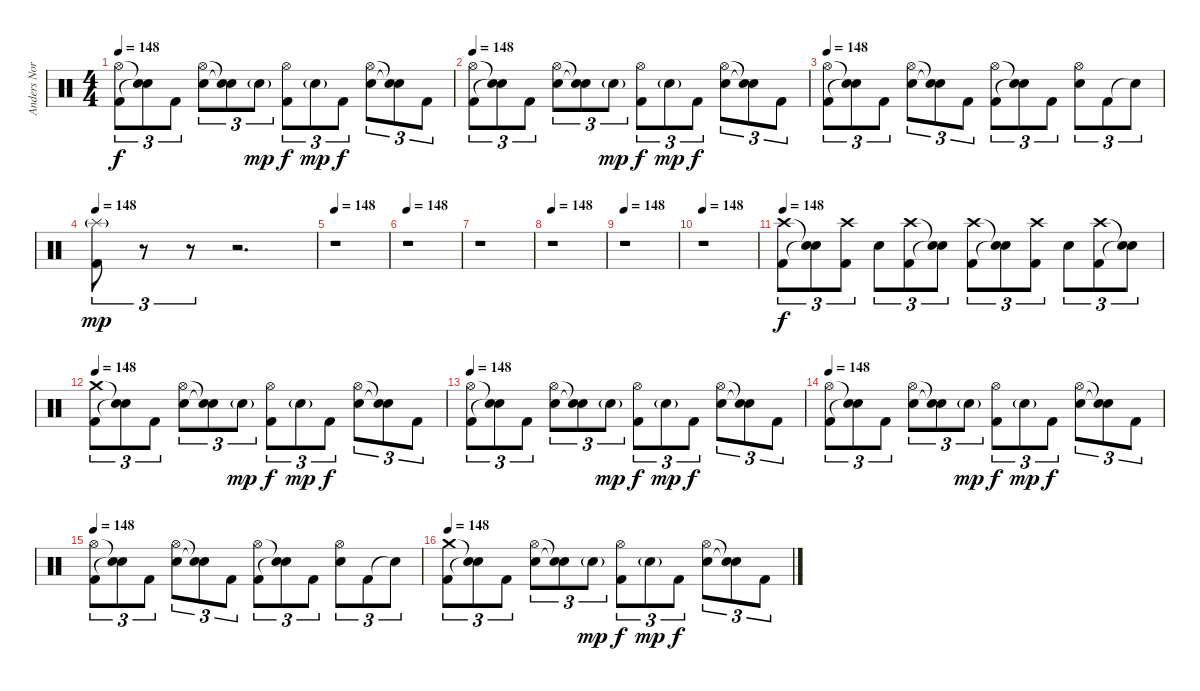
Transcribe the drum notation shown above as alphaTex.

\track ("Anders Nordin" "Anders Nor") {instrument percussion}
\staff {score}
\articulation defaults
\ts (4 4)
\tempo 148
\clef neutral
\ks c
("Kick (hit) 2" "Hi-Hat (open)").8{tu (3 2) dy f} ("Snare (hit)"{t} "Snare (hit)"{t}).8{tu (3 2)} "Kick (hit) 2".8{tu (3 2)} ("Electric Snare (hit)" "Hi-Hat (open)").8{tu (3 2)} ("Snare (hit)"{t} "Snare (hit)"{t}).8{tu (3 2)} "Electric Snare (hit)"{g}.8{tu (3 2) dy mp} ("Kick (hit) 2" "Hi-Hat (open)").8{tu (3 2) dy f} "Electric Snare (hit)"{g}.8{tu (3 2) dy mp} "Kick (hit) 2".8{tu (3 2) dy f} ("Electric Snare (hit)" "Hi-Hat (open)").8{tu (3 2)} ("Snare (hit)"{t} "Snare (hit)"{t}).8{tu (3 2)} "Kick (hit) 2".8{tu (3 2)} |
\tempo 148
("Kick (hit) 2" "Hi-Hat (open)").8{tu (3 2)} ("Snare (hit)"{t} "Snare (hit)"{t}).8{tu (3 2)} "Kick (hit) 2".8{tu (3 2)} ("Electric Snare (hit)" "Hi-Hat (open)").8{tu (3 2)} ("Snare (hit)"{t} "Snare (hit)"{t}).8{tu (3 2)} "Electric Snare (hit)"{g}.8{tu (3 2) dy mp} ("Kick (hit) 2" "Hi-Hat (open)").8{tu (3 2) dy f} "Electric Snare (hit)"{g}.8{tu (3 2) dy mp} "Kick (hit) 2".8{tu (3 2) dy f} ("Electric Snare (hit)" "Hi-Hat (open)").8{tu (3 2)} ("Snare (hit)"{t} "Snare (hit)"{t}).8{tu (3 2)} "Kick (hit) 2".8{tu (3 2)} |
\tempo 148
("Kick (hit) 2" "Hi-Hat (open)").8{tu (3 2)} ("Snare (hit)"{t} "Snare (hit)"{t}).8{tu (3 2)} "Kick (hit) 2".8{tu (3 2)} ("Electric Snare (hit)" "Hi-Hat (open)").8{tu (3 2)} ("Snare (hit)"{t} "Snare (hit)"{t}).8{tu (3 2)} "Kick (hit) 2".8{tu (3 2)} ("Kick (hit) 2" "Hi-Hat (open)").8{tu (3 2)} ("Snare (hit)"{t} "Snare (hit)"{t}).8{tu (3 2)} "Kick (hit) 2".8{tu (3 2)} ("Electric Snare (hit)" "Hi-Hat (open)").8{tu (3 2)} "Kick (hit) 2".8{tu (3 2)} "Snare (hit)"{t}.8{tu (3 2)} |
\tempo 148
("Kick (hit) 2" "Splash (hit)"{g}).8{tu (3 2) dy mp volume 7} r.8{tu (3 2)} r.8{tu (3 2)} r.2{d} |
\tempo 148
r.1 |
\tempo 148
r.1 |
r.1 |
\tempo 148
r.1 |
\tempo 148
r.1 |
\tempo 148
r.1{volume 12} |
\tempo 148
("Kick (hit) 2" "Crash high (hit)").8{tu (3 2) dy f volume 12} ("Snare (hit)"{t} "Snare (hit)"{t}).8{tu (3 2)} ("Kick (hit) 2" "Crash high (hit)").8{tu (3 2)} "Electric Snare (hit)".8{tu (3 2)} ("Kick (hit) 2" "Crash high (hit)").8{tu (3 2)} ("Snare (hit)"{t} "Snare (hit)"{t}).8{tu (3 2)} ("Kick (hit) 2" "Crash high (hit)").8{tu (3 2)} ("Snare (hit)"{t} "Snare (hit)"{t}).8{tu (3 2)} ("Kick (hit) 2" "Crash high (hit)").8{tu (3 2)} "Electric Snare (hit)".8{tu (3 2)} ("Kick (hit) 2" "Crash high (hit)").8{tu (3 2)} ("Snare (hit)"{t} "Snare (hit)"{t}).8{tu (3 2)} |
\tempo 148
("Kick (hit) 2" "Crash medium (hit)").8{tu (3 2)} ("Snare (hit)"{t} "Snare (hit)"{t}).8{tu (3 2)} "Kick (hit) 2".8{tu (3 2)} ("Electric Snare (hit)" "Hi-Hat (open)").8{tu (3 2)} ("Snare (hit)"{t} "Snare (hit)"{t}).8{tu (3 2)} "Electric Snare (hit)"{g}.8{tu (3 2) dy mp} ("Kick (hit) 2" "Hi-Hat (open)").8{tu (3 2) dy f} "Electric Snare (hit)"{g}.8{tu (3 2) dy mp} "Kick (hit) 2".8{tu (3 2) dy f} ("Electric Snare (hit)" "Hi-Hat (open)").8{tu (3 2)} ("Snare (hit)"{t} "Snare (hit)"{t}).8{tu (3 2)} "Kick (hit) 2".8{tu (3 2)} |
\tempo 148
("Kick (hit) 2" "Hi-Hat (open)").8{tu (3 2)} ("Snare (hit)"{t} "Snare (hit)"{t}).8{tu (3 2)} "Kick (hit) 2".8{tu (3 2)} ("Electric Snare (hit)" "Hi-Hat (open)").8{tu (3 2)} ("Snare (hit)"{t} "Snare (hit)"{t}).8{tu (3 2)} "Electric Snare (hit)"{g}.8{tu (3 2) dy mp} ("Kick (hit) 2" "Hi-Hat (open)").8{tu (3 2) dy f} "Electric Snare (hit)"{g}.8{tu (3 2) dy mp} "Kick (hit) 2".8{tu (3 2) dy f} ("Electric Snare (hit)" "Hi-Hat (open)").8{tu (3 2)} ("Snare (hit)"{t} "Snare (hit)"{t}).8{tu (3 2)} "Kick (hit) 2".8{tu (3 2)} |
\tempo 148
("Kick (hit) 2" "Hi-Hat (open)").8{tu (3 2)} ("Snare (hit)"{t} "Snare (hit)"{t}).8{tu (3 2)} "Kick (hit) 2".8{tu (3 2)} ("Electric Snare (hit)" "Hi-Hat (open)").8{tu (3 2)} ("Snare (hit)"{t} "Snare (hit)"{t}).8{tu (3 2)} "Electric Snare (hit)"{g}.8{tu (3 2) dy mp} ("Kick (hit) 2" "Hi-Hat (open)").8{tu (3 2) dy f} "Electric Snare (hit)"{g}.8{tu (3 2) dy mp} "Kick (hit) 2".8{tu (3 2) dy f} ("Electric Snare (hit)" "Hi-Hat (open)").8{tu (3 2)} ("Snare (hit)"{t} "Snare (hit)"{t}).8{tu (3 2)} "Kick (hit) 2".8{tu (3 2)} |
\tempo 148
("Kick (hit) 2" "Hi-Hat (open)").8{tu (3 2)} ("Snare (hit)"{t} "Snare (hit)"{t}).8{tu (3 2)} "Kick (hit) 2".8{tu (3 2)} ("Electric Snare (hit)" "Hi-Hat (open)").8{tu (3 2)} ("Snare (hit)"{t} "Snare (hit)"{t}).8{tu (3 2)} "Kick (hit) 2".8{tu (3 2)} ("Kick (hit) 2" "Hi-Hat (open)").8{tu (3 2)} ("Snare (hit)"{t} "Snare (hit)"{t}).8{tu (3 2)} "Kick (hit) 2".8{tu (3 2)} ("Electric Snare (hit)" "Hi-Hat (open)").8{tu (3 2)} "Kick (hit) 2".8{tu (3 2)} "Snare (hit)"{t}.8{tu (3 2)} |
\tempo 148
("Kick (hit) 2" "Crash medium (hit)").8{tu (3 2)} ("Snare (hit)"{t} "Snare (hit)"{t}).8{tu (3 2)} "Kick (hit) 2".8{tu (3 2)} ("Electric Snare (hit)" "Hi-Hat (open)").8{tu (3 2)} ("Snare (hit)"{t} "Snare (hit)"{t}).8{tu (3 2)} "Electric Snare (hit)"{g}.8{tu (3 2) dy mp} ("Kick (hit) 2" "Hi-Hat (open)").8{tu (3 2) dy f} "Electric Snare (hit)"{g}.8{tu (3 2) dy mp} "Kick (hit) 2".8{tu (3 2) dy f} ("Electric Snare (hit)" "Hi-Hat (open)").8{tu (3 2)} ("Snare (hit)"{t} "Snare (hit)"{t}).8{tu (3 2)} "Kick (hit) 2".8{tu (3 2)}
